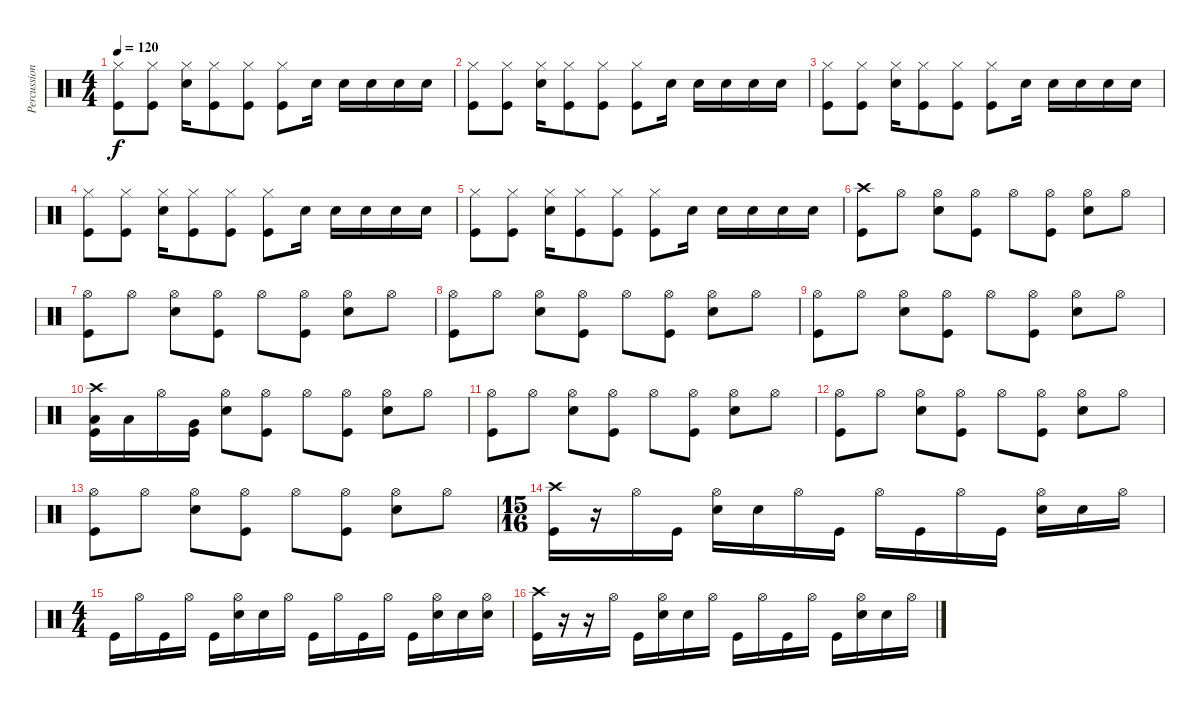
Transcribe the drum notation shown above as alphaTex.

\track ("Percussion" "Percussion") {instrument percussion}
\staff {score}
\articulation defaults
\ts (4 4)
\tempo 120
\clef neutral
\ks c
("Hi-Hat (closed)" "Kick (hit)").8{dy f} ("Hi-Hat (closed)" "Kick (hit)").8 ("Hi-Hat (closed)" "Snare (hit) 2").16 ("Hi-Hat (closed)" "Kick (hit)").8 ("Hi-Hat (closed)" "Kick (hit)").8 ("Hi-Hat (closed)" "Kick (hit)").8 "Snare (hit) 2".16 "Snare (hit) 2".16 "Snare (hit) 2".16 "Snare (hit) 2".16 "Snare (hit) 2".16 |
("Hi-Hat (closed)" "Kick (hit)").8 ("Hi-Hat (closed)" "Kick (hit)").8 ("Hi-Hat (closed)" "Snare (hit) 2").16 ("Hi-Hat (closed)" "Kick (hit)").8 ("Hi-Hat (closed)" "Kick (hit)").8 ("Hi-Hat (closed)" "Kick (hit)").8 "Snare (hit) 2".16 "Snare (hit) 2".16 "Snare (hit) 2".16 "Snare (hit) 2".16 "Snare (hit) 2".16 |
("Hi-Hat (closed)" "Kick (hit)").8 ("Hi-Hat (closed)" "Kick (hit)").8 ("Hi-Hat (closed)" "Snare (hit) 2").16 ("Hi-Hat (closed)" "Kick (hit)").8 ("Hi-Hat (closed)" "Kick (hit)").8 ("Hi-Hat (closed)" "Kick (hit)").8 "Snare (hit) 2".16 "Snare (hit) 2".16 "Snare (hit) 2".16 "Snare (hit) 2".16 "Snare (hit) 2".16 |
("Hi-Hat (closed)" "Kick (hit)").8 ("Hi-Hat (closed)" "Kick (hit)").8 ("Hi-Hat (closed)" "Snare (hit) 2").16 ("Hi-Hat (closed)" "Kick (hit)").8 ("Hi-Hat (closed)" "Kick (hit)").8 ("Hi-Hat (closed)" "Kick (hit)").8 "Snare (hit) 2".16 "Snare (hit) 2".16 "Snare (hit) 2".16 "Snare (hit) 2".16 "Snare (hit) 2".16 |
("Hi-Hat (closed)" "Kick (hit)").8 ("Hi-Hat (closed)" "Kick (hit)").8 ("Hi-Hat (closed)" "Snare (hit) 2").16 ("Hi-Hat (closed)" "Kick (hit)").8 ("Hi-Hat (closed)" "Kick (hit)").8 ("Hi-Hat (closed)" "Kick (hit)").8 "Snare (hit) 2".16 "Snare (hit) 2".16 "Snare (hit) 2".16 "Snare (hit) 2".16 "Snare (hit) 2".16 |
("Crash high (hit)" "Kick (hit)").8 "Hi-Hat (open)".8 ("Hi-Hat (open)" "Snare (hit) 2").8 ("Hi-Hat (open)" "Kick (hit)").8 "Hi-Hat (open)".8 ("Hi-Hat (open)" "Kick (hit)").8 ("Hi-Hat (open)" "Snare (hit) 2").8 "Hi-Hat (open)".8 |
("Hi-Hat (open)" "Kick (hit)").8 "Hi-Hat (open)".8 ("Hi-Hat (open)" "Snare (hit) 2").8 ("Hi-Hat (open)" "Kick (hit)").8 "Hi-Hat (open)".8 ("Hi-Hat (open)" "Kick (hit)").8 ("Hi-Hat (open)" "Snare (hit) 2").8 "Hi-Hat (open)".8 |
("Hi-Hat (open)" "Kick (hit)").8 "Hi-Hat (open)".8 ("Hi-Hat (open)" "Snare (hit) 2").8 ("Hi-Hat (open)" "Kick (hit)").8 "Hi-Hat (open)".8 ("Hi-Hat (open)" "Kick (hit)").8 ("Hi-Hat (open)" "Snare (hit) 2").8 "Hi-Hat (open)".8 |
("Hi-Hat (open)" "Kick (hit)").8 "Hi-Hat (open)".8 ("Hi-Hat (open)" "Snare (hit) 2").8 ("Hi-Hat (open)" "Kick (hit)").8 "Hi-Hat (open)".8 ("Hi-Hat (open)" "Kick (hit)").8 ("Hi-Hat (open)" "Snare (hit) 2").8 "Hi-Hat (open)".8 |
("Crash high (hit)" "Low Tom (hit)" "Kick (hit)").16 "Low Tom (hit)".16 "Hi-Hat (open)".16 ("Very Low Tom (hit)" "Kick (hit)").16 ("Hi-Hat (open)" "Snare (hit) 2").8 ("Hi-Hat (open)" "Kick (hit)").8 "Hi-Hat (open)".8 ("Hi-Hat (open)" "Kick (hit)").8 ("Hi-Hat (open)" "Snare (hit) 2").8 "Hi-Hat (open)".8 |
("Hi-Hat (open)" "Kick (hit)").8 "Hi-Hat (open)".8 ("Hi-Hat (open)" "Snare (hit) 2").8 ("Hi-Hat (open)" "Kick (hit)").8 "Hi-Hat (open)".8 ("Hi-Hat (open)" "Kick (hit)").8 ("Hi-Hat (open)" "Snare (hit) 2").8 "Hi-Hat (open)".8 |
("Hi-Hat (open)" "Kick (hit)").8 "Hi-Hat (open)".8 ("Hi-Hat (open)" "Snare (hit) 2").8 ("Hi-Hat (open)" "Kick (hit)").8 "Hi-Hat (open)".8 ("Hi-Hat (open)" "Kick (hit)").8 ("Hi-Hat (open)" "Snare (hit) 2").8 "Hi-Hat (open)".8 |
("Hi-Hat (open)" "Kick (hit)").8 "Hi-Hat (open)".8 ("Hi-Hat (open)" "Snare (hit) 2").8 ("Hi-Hat (open)" "Kick (hit)").8 "Hi-Hat (open)".8 ("Hi-Hat (open)" "Kick (hit)").8 ("Hi-Hat (open)" "Snare (hit) 2").8 "Hi-Hat (open)".8 |
\ts (15 16)
("Crash high (hit)" "Kick (hit)").16 r.16 "Hi-Hat (open)".16 "Kick (hit)".16 ("Hi-Hat (open)" "Snare (hit) 2").16 "Snare (hit) 2".16 "Hi-Hat (open)".16 "Kick (hit)".16 "Hi-Hat (open)".16 "Kick (hit)".16 "Hi-Hat (open)".16 "Kick (hit)".16 ("Hi-Hat (open)" "Snare (hit) 2").16 "Snare (hit) 2".16 "Hi-Hat (open)".16 |
\ts (4 4)
"Kick (hit)".16 "Hi-Hat (open)".16 "Kick (hit)".16 "Hi-Hat (open)".16 "Kick (hit)".16 ("Hi-Hat (open)" "Snare (hit) 2").16 "Snare (hit) 2".16 "Hi-Hat (open)".16 "Kick (hit)".16 "Hi-Hat (open)".16 "Kick (hit)".16 "Hi-Hat (open)".16 "Kick (hit)".16 ("Hi-Hat (open)" "Snare (hit) 2").16 "Snare (hit) 2".16 ("Hi-Hat (open)" "Snare (hit) 2").16 |
("Crash high (hit)" "Kick (hit)").16 r.16 r.16 "Hi-Hat (open)".16 "Kick (hit)".16 ("Hi-Hat (open)" "Snare (hit) 2").16 "Snare (hit) 2".16 "Hi-Hat (open)".16 "Kick (hit)".16 "Hi-Hat (open)".16 "Kick (hit)".16 "Hi-Hat (open)".16 "Kick (hit)".16 ("Hi-Hat (open)" "Snare (hit) 2").16 "Snare (hit) 2".16 "Hi-Hat (open)".16
